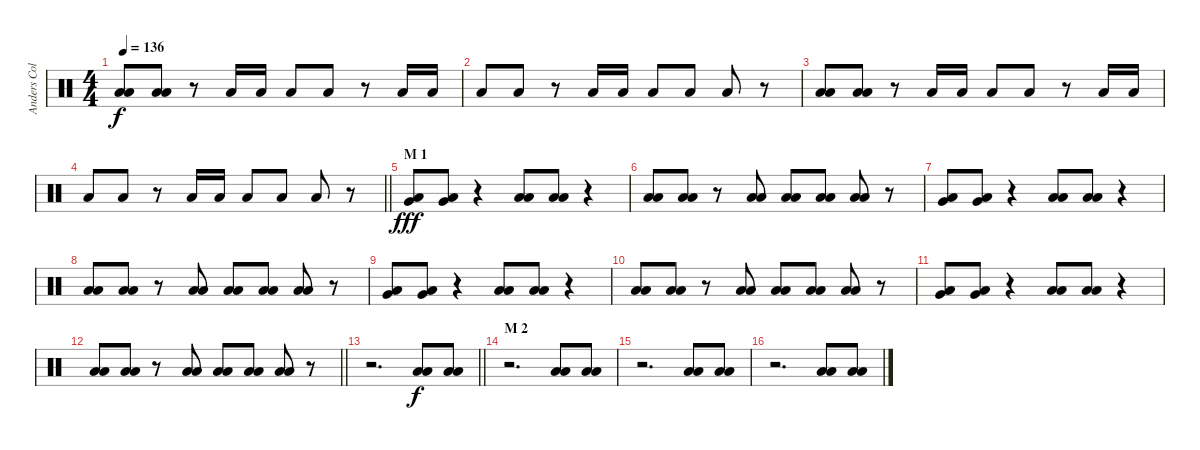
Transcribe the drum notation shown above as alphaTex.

\track ("Anders Colsefini" "Anders Col") {instrument percussion}
\staff {score}
\articulation defaults
\ts (4 4)
\tempo 136
\clef neutral
\ks c
("Low Floor Tom (hit)" "Low Floor Tom (hit)").8{dy f} ("Low Floor Tom (hit)" "Low Floor Tom (hit)").8 r.8 "Low Floor Tom (hit)".16 "Low Floor Tom (hit)".16 "Low Floor Tom (hit)".8 "Low Floor Tom (hit)".8 r.8 "Low Floor Tom (hit)".16 "Low Floor Tom (hit)".16 |
"Low Floor Tom (hit)".8 "Low Floor Tom (hit)".8 r.8 "Low Floor Tom (hit)".16 "Low Floor Tom (hit)".16 "Low Floor Tom (hit)".8 "Low Floor Tom (hit)".8 "Low Floor Tom (hit)".8 r.8 |
("Low Floor Tom (hit)" "Low Floor Tom (hit)").8 ("Low Floor Tom (hit)" "Low Floor Tom (hit)").8 r.8 "Low Floor Tom (hit)".16 "Low Floor Tom (hit)".16 "Low Floor Tom (hit)".8 "Low Floor Tom (hit)".8 r.8 "Low Floor Tom (hit)".16 "Low Floor Tom (hit)".16 |
\barLineRight lightlight "Low Floor Tom (hit)".8 "Low Floor Tom (hit)".8
r.8 "Low Floor Tom (hit)".16 "Low Floor Tom (hit)".16 "Low Floor Tom (hit)".8 "Low Floor Tom (hit)".8 "Low Floor Tom (hit)".8 r.8 |
\section ("" "M 1")
("Very Low Tom (hit)" "Low Floor Tom (hit)").8{dy fff} ("Very Low Tom (hit)" "Low Floor Tom (hit)").8 r.4 ("Low Floor Tom (hit)" "Low Floor Tom (hit)").8 ("Low Floor Tom (hit)" "Low Floor Tom (hit)").8 r.4 |
("Low Floor Tom (hit)" "Low Floor Tom (hit)").8 ("Low Floor Tom (hit)" "Low Floor Tom (hit)").8 r.8 ("Low Floor Tom (hit)" "Low Floor Tom (hit)").8 ("Low Floor Tom (hit)" "Low Floor Tom (hit)").8 ("Low Floor Tom (hit)" "Low Floor Tom (hit)").8 ("Low Floor Tom (hit)" "Low Floor Tom (hit)").8 r.8 |
("Very Low Tom (hit)" "Low Floor Tom (hit)").8 ("Very Low Tom (hit)" "Low Floor Tom (hit)").8 r.4 ("Low Floor Tom (hit)" "Low Floor Tom (hit)").8 ("Low Floor Tom (hit)" "Low Floor Tom (hit)").8 r.4 |
("Low Floor Tom (hit)" "Low Floor Tom (hit)").8 ("Low Floor Tom (hit)" "Low Floor Tom (hit)").8 r.8 ("Low Floor Tom (hit)" "Low Floor Tom (hit)").8 ("Low Floor Tom (hit)" "Low Floor Tom (hit)").8 ("Low Floor Tom (hit)" "Low Floor Tom (hit)").8 ("Low Floor Tom (hit)" "Low Floor Tom (hit)").8 r.8 |
("Very Low Tom (hit)" "Low Floor Tom (hit)").8 ("Very Low Tom (hit)" "Low Floor Tom (hit)").8 r.4 ("Low Floor Tom (hit)" "Low Floor Tom (hit)").8 ("Low Floor Tom (hit)" "Low Floor Tom (hit)").8 r.4 |
("Low Floor Tom (hit)" "Low Floor Tom (hit)").8 ("Low Floor Tom (hit)" "Low Floor Tom (hit)").8 r.8 ("Low Floor Tom (hit)" "Low Floor Tom (hit)").8 ("Low Floor Tom (hit)" "Low Floor Tom (hit)").8 ("Low Floor Tom (hit)" "Low Floor Tom (hit)").8 ("Low Floor Tom (hit)" "Low Floor Tom (hit)").8 r.8 |
("Very Low Tom (hit)" "Low Floor Tom (hit)").8 ("Very Low Tom (hit)" "Low Floor Tom (hit)").8 r.4 ("Low Floor Tom (hit)" "Low Floor Tom (hit)").8 ("Low Floor Tom (hit)" "Low Floor Tom (hit)").8 r.4 |
\barLineRight lightlight
("Low Floor Tom (hit)" "Low Floor Tom (hit)").8 ("Low Floor Tom (hit)" "Low Floor Tom (hit)").8 r.8 ("Low Floor Tom (hit)" "Low Floor Tom (hit)").8 ("Low Floor Tom (hit)" "Low Floor Tom (hit)").8 ("Low Floor Tom (hit)" "Low Floor Tom (hit)").8 ("Low Floor Tom (hit)" "Low Floor Tom (hit)").8 r.8 |
\barLineRight lightlight
r.2{d} ("Low Floor Tom (hit)" "Low Floor Tom (hit)").8{dy f} ("Low Floor Tom (hit)" "Low Floor Tom (hit)").8 |
\section ("" "M 2")
r.2{d} ("Low Floor Tom (hit)" "Low Floor Tom (hit)").8 ("Low Floor Tom (hit)" "Low Floor Tom (hit)").8 |
r.2{d} ("Low Floor Tom (hit)" "Low Floor Tom (hit)").8 ("Low Floor Tom (hit)" "Low Floor Tom (hit)").8 |
r.2{d} ("Low Floor Tom (hit)" "Low Floor Tom (hit)").8 ("Low Floor Tom (hit)" "Low Floor Tom (hit)").8
